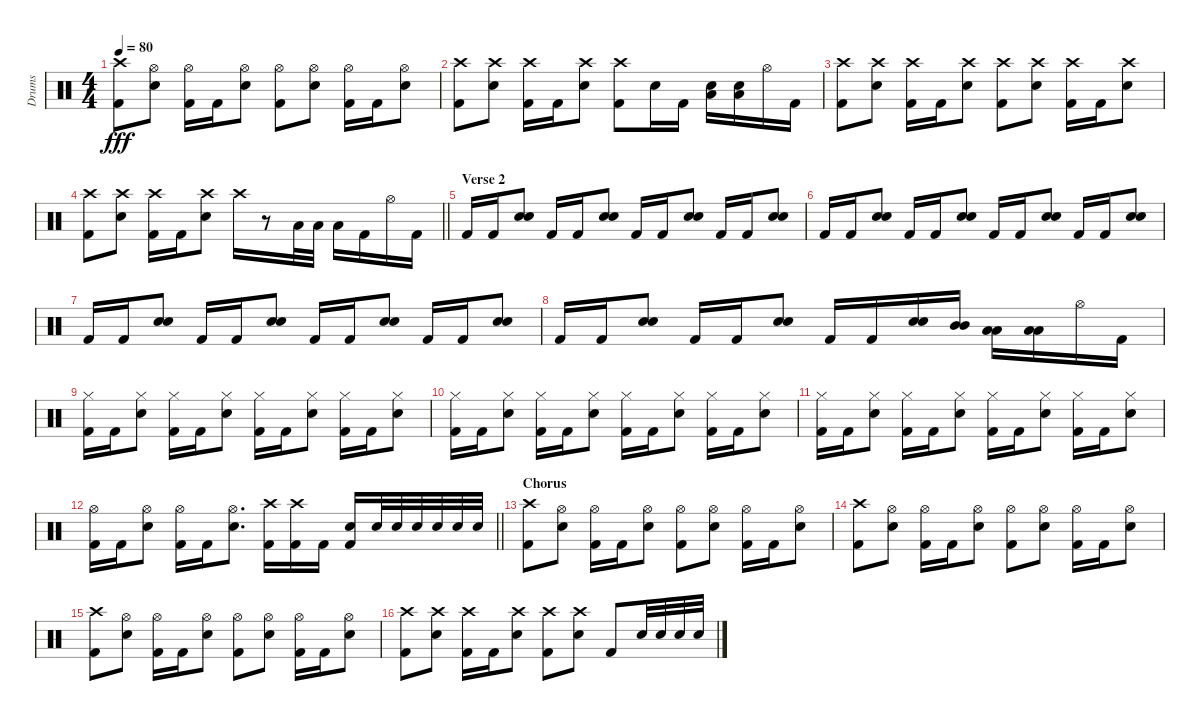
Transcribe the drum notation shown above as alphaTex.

\track ("Drums" "Drums") {instrument percussion}
\staff {score}
\articulation defaults
\ts (4 4)
\tempo 80
\clef neutral
\ks c
("Crash high (hit)" "Kick (hit) 2").8{dy fff} ("Hi-Hat (open)" "Snare (hit) 2").8 ("Hi-Hat (open)" "Kick (hit) 2").16 "Kick (hit) 2".16 ("Hi-Hat (open)" "Snare (hit) 2").8 ("Hi-Hat (open)" "Kick (hit) 2").8 ("Hi-Hat (open)" "Snare (hit) 2").8 ("Hi-Hat (open)" "Kick (hit) 2").16 "Kick (hit) 2".16 ("Hi-Hat (open)" "Snare (hit) 2").8 |
("Crash high (hit)" "Kick (hit) 2").8 ("Crash high (hit)" "Snare (hit) 2").8 ("Crash high (hit)" "Kick (hit) 2").16 "Kick (hit) 2".16 ("Crash high (hit)" "Snare (hit) 2").8 ("Crash high (hit)" "Kick (hit) 2").8 "Snare (hit) 2".16 "Kick (hit) 2".16 ("Snare (hit) 2" "Low Floor Tom (hit)").16 ("Snare (hit) 2" "Low Floor Tom (hit)").16 "Hi-Hat (open)".16 "Kick (hit) 2".16 |
("Crash high (hit)" "Kick (hit) 2").8 ("Crash high (hit)" "Snare (hit) 2").8 ("Crash high (hit)" "Kick (hit) 2").16 "Kick (hit) 2".16 ("Crash high (hit)" "Snare (hit) 2").8 ("Crash high (hit)" "Kick (hit) 2").8 ("Crash high (hit)" "Snare (hit) 2").8 ("Crash high (hit)" "Kick (hit) 2").16 "Kick (hit) 2".16 ("Crash high (hit)" "Snare (hit) 2").8 |
\barLineRight lightlight
("Crash high (hit)" "Kick (hit) 2").8 ("Crash high (hit)" "Snare (hit) 2").8 ("Crash high (hit)" "Kick (hit) 2").16 "Kick (hit) 2".16 ("Crash high (hit)" "Snare (hit) 2").8 "Crash high (hit)".16 r.8 "Low Floor Tom (hit)".32 "Low Floor Tom (hit)".32 "Low Floor Tom (hit)".16 "Kick (hit) 2".16 "Hi-Hat (open)".16 "Kick (hit) 2".16 |
\section ("" "Verse 2")
"Kick (hit) 2".16 "Kick (hit) 2".16 ("Snare (hit) 2" "Snare (hit) 2").8 "Kick (hit) 2".16 "Kick (hit) 2".16 ("Snare (hit) 2" "Snare (hit) 2").8 "Kick (hit) 2".16 "Kick (hit) 2".16 ("Snare (hit) 2" "Snare (hit) 2").8 "Kick (hit) 2".16 "Kick (hit) 2".16 ("Snare (hit) 2" "Snare (hit) 2").8 |
"Kick (hit) 2".16 "Kick (hit) 2".16 ("Snare (hit) 2" "Snare (hit) 2").8 "Kick (hit) 2".16 "Kick (hit) 2".16 ("Snare (hit) 2" "Snare (hit) 2").8 "Kick (hit) 2".16 "Kick (hit) 2".16 ("Snare (hit) 2" "Snare (hit) 2").8 "Kick (hit) 2".16 "Kick (hit) 2".16 ("Snare (hit) 2" "Snare (hit) 2").8 |
"Kick (hit) 2".16 "Kick (hit) 2".16 ("Snare (hit) 2" "Snare (hit) 2").8 "Kick (hit) 2".16 "Kick (hit) 2".16 ("Snare (hit) 2" "Snare (hit) 2").8 "Kick (hit) 2".16 "Kick (hit) 2".16 ("Snare (hit) 2" "Snare (hit) 2").8 "Kick (hit) 2".16 "Kick (hit) 2".16 ("Snare (hit) 2" "Snare (hit) 2").8 |
"Kick (hit) 2".16 "Kick (hit) 2".16 ("Snare (hit) 2" "Snare (hit) 2").8 "Kick (hit) 2".16 "Kick (hit) 2".16 ("Snare (hit) 2" "Snare (hit) 2").8 "Kick (hit) 2".16 "Kick (hit) 2".16 ("Snare (hit) 2" "Snare (hit) 2").16 ("Mid Tom (hit)" "Mid Tom (hit)").16 ("Low Tom (hit)" "Low Tom (hit)").16 ("Low Floor Tom (hit)" "Low Floor Tom (hit)").16 "Hi-Hat (open)".16 "Kick (hit) 2".16 |
("Hi-Hat (closed)" "Kick (hit) 2").16 "Kick (hit) 2".16 ("Hi-Hat (closed)" "Snare (hit) 2").8 ("Hi-Hat (closed)" "Kick (hit) 2").16 "Kick (hit) 2".16 ("Hi-Hat (closed)" "Snare (hit) 2").8 ("Hi-Hat (closed)" "Kick (hit) 2").16 "Kick (hit) 2".16 ("Hi-Hat (closed)" "Snare (hit) 2").8 ("Hi-Hat (closed)" "Kick (hit) 2").16 "Kick (hit) 2".16 ("Hi-Hat (closed)" "Snare (hit) 2").8 |
("Hi-Hat (closed)" "Kick (hit) 2").16 "Kick (hit) 2".16 ("Hi-Hat (closed)" "Snare (hit) 2").8 ("Hi-Hat (closed)" "Kick (hit) 2").16 "Kick (hit) 2".16 ("Hi-Hat (closed)" "Snare (hit) 2").8 ("Hi-Hat (closed)" "Kick (hit) 2").16 "Kick (hit) 2".16 ("Hi-Hat (closed)" "Snare (hit) 2").8 ("Hi-Hat (closed)" "Kick (hit) 2").16 "Kick (hit) 2".16 ("Hi-Hat (closed)" "Snare (hit) 2").8 |
("Hi-Hat (closed)" "Kick (hit) 2").16 "Kick (hit) 2".16 ("Hi-Hat (closed)" "Snare (hit) 2").8 ("Hi-Hat (closed)" "Kick (hit) 2").16 "Kick (hit) 2".16 ("Hi-Hat (closed)" "Snare (hit) 2").8 ("Hi-Hat (closed)" "Kick (hit) 2").16 "Kick (hit) 2".16 ("Hi-Hat (closed)" "Snare (hit) 2").8 ("Hi-Hat (closed)" "Kick (hit) 2").16 "Kick (hit) 2".16 ("Hi-Hat (closed)" "Snare (hit) 2").8 |
\barLineRight lightlight
("Hi-Hat (open)" "Kick (hit) 2").16 "Kick (hit) 2".16 ("Hi-Hat (open)" "Snare (hit) 2").8 ("Hi-Hat (open)" "Kick (hit) 2").16 "Kick (hit) 2".16 ("Hi-Hat (open)" "Snare (hit) 2").8{d} ("Crash high (hit)" "Kick (hit) 2").16 ("Crash high (hit)" "Kick (hit) 2").16 "Kick (hit) 2".16 ("Snare (hit) 2" "Kick (hit) 2").16 "Snare (hit) 2".32 "Snare (hit) 2".32 "Snare (hit) 2".32 "Snare (hit) 2".32 "Snare (hit) 2".32 "Snare (hit) 2".32 |
\section ("" "Chorus")
("Crash high (hit)" "Kick (hit) 2").8 ("Hi-Hat (open)" "Snare (hit) 2").8 ("Hi-Hat (open)" "Kick (hit) 2").16 "Kick (hit) 2".16 ("Hi-Hat (open)" "Snare (hit) 2").8 ("Hi-Hat (open)" "Kick (hit) 2").8 ("Hi-Hat (open)" "Snare (hit) 2").8 ("Hi-Hat (open)" "Kick (hit) 2").16 "Kick (hit) 2".16 ("Hi-Hat (open)" "Snare (hit) 2").8 |
("Crash high (hit)" "Kick (hit) 2").8 ("Hi-Hat (open)" "Snare (hit) 2").8 ("Hi-Hat (open)" "Kick (hit) 2").16 "Kick (hit) 2".16 ("Hi-Hat (open)" "Snare (hit) 2").8 ("Hi-Hat (open)" "Kick (hit) 2").8 ("Hi-Hat (open)" "Snare (hit) 2").8 ("Hi-Hat (open)" "Kick (hit) 2").16 "Kick (hit) 2".16 ("Hi-Hat (open)" "Snare (hit) 2").8 |
("Crash high (hit)" "Kick (hit) 2").8 ("Hi-Hat (open)" "Snare (hit) 2").8 ("Hi-Hat (open)" "Kick (hit) 2").16 "Kick (hit) 2".16 ("Hi-Hat (open)" "Snare (hit) 2").8 ("Hi-Hat (open)" "Kick (hit) 2").8 ("Hi-Hat (open)" "Snare (hit) 2").8 ("Hi-Hat (open)" "Kick (hit) 2").16 "Kick (hit) 2".16 ("Hi-Hat (open)" "Snare (hit) 2").8 |
("Crash high (hit)" "Kick (hit) 2").8 ("Crash high (hit)" "Snare (hit) 2").8 ("Crash high (hit)" "Kick (hit) 2").16 "Kick (hit) 2".16 ("Crash high (hit)" "Snare (hit) 2").8 ("Crash high (hit)" "Kick (hit) 2").8 ("Crash high (hit)" "Snare (hit) 2").8 "Kick (hit) 2".8 "Snare (hit) 2".32 "Snare (hit) 2".32 "Snare (hit) 2".32 "Snare (hit) 2".32
